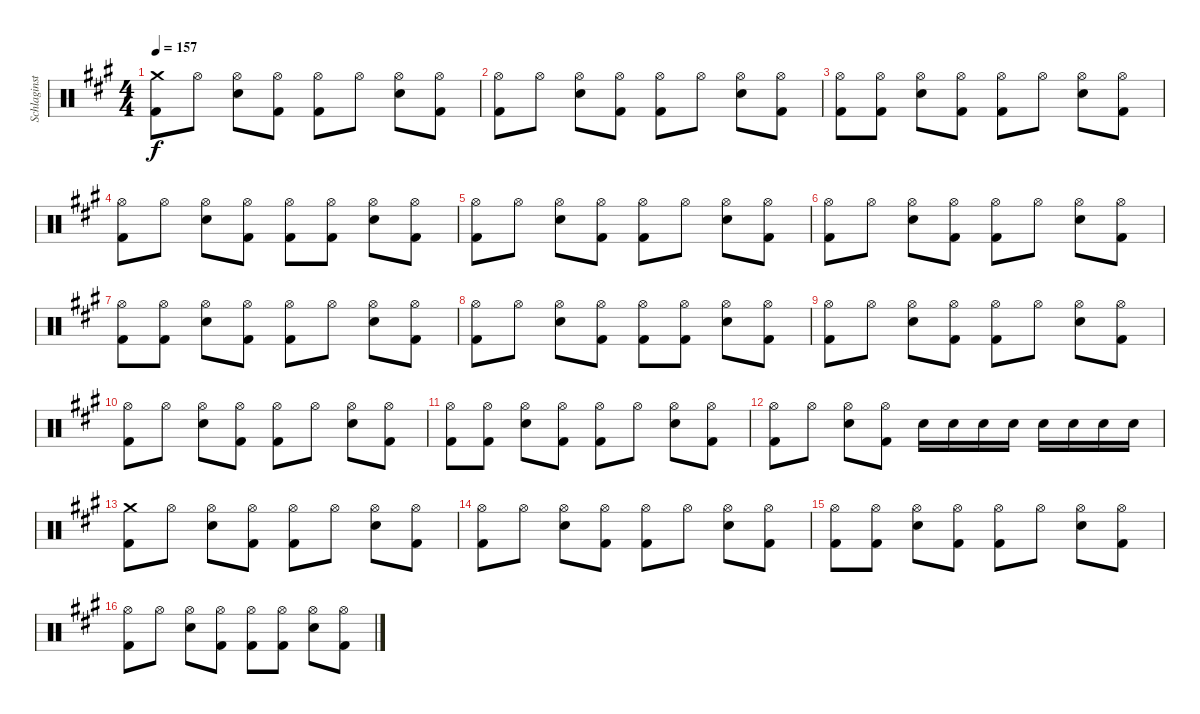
\track ("Schlaginstrumente - Auswahl" "Schlaginst") {instrument percussion}
\staff {score}
\articulation defaults
\ts (4 4)
\tempo 157
\clef neutral
\ks f#minor
("Crash medium (hit)" "Kick (hit) 2").8{dy f} "Hi-Hat (open)".8 ("Hi-Hat (open)" "Electric Snare (hit)").8 ("Hi-Hat (open)" "Kick (hit) 2").8 ("Hi-Hat (open)" "Kick (hit) 2").8 "Hi-Hat (open)".8 ("Hi-Hat (open)" "Electric Snare (hit)").8 ("Hi-Hat (open)" "Kick (hit) 2").8 |
("Hi-Hat (open)" "Kick (hit) 2").8 "Hi-Hat (open)".8 ("Hi-Hat (open)" "Electric Snare (hit)").8 ("Hi-Hat (open)" "Kick (hit) 2").8 ("Hi-Hat (open)" "Kick (hit) 2").8 "Hi-Hat (open)".8 ("Hi-Hat (open)" "Electric Snare (hit)").8 ("Hi-Hat (open)" "Kick (hit) 2").8 |
("Hi-Hat (open)" "Kick (hit) 2").8 ("Hi-Hat (open)" "Kick (hit) 2").8 ("Hi-Hat (open)" "Electric Snare (hit)").8 ("Hi-Hat (open)" "Kick (hit) 2").8 ("Hi-Hat (open)" "Kick (hit) 2").8 "Hi-Hat (open)".8 ("Hi-Hat (open)" "Electric Snare (hit)").8 ("Hi-Hat (open)" "Kick (hit) 2").8 |
("Hi-Hat (open)" "Kick (hit) 2").8 "Hi-Hat (open)".8 ("Hi-Hat (open)" "Electric Snare (hit)").8 ("Hi-Hat (open)" "Kick (hit) 2").8 ("Hi-Hat (open)" "Kick (hit) 2").8 ("Hi-Hat (open)" "Kick (hit) 2").8 ("Hi-Hat (open)" "Electric Snare (hit)").8 ("Hi-Hat (open)" "Kick (hit) 2").8 |
("Hi-Hat (open)" "Kick (hit) 2").8 "Hi-Hat (open)".8 ("Hi-Hat (open)" "Electric Snare (hit)").8 ("Hi-Hat (open)" "Kick (hit) 2").8 ("Hi-Hat (open)" "Kick (hit) 2").8 "Hi-Hat (open)".8 ("Hi-Hat (open)" "Electric Snare (hit)").8 ("Hi-Hat (open)" "Kick (hit) 2").8 |
("Hi-Hat (open)" "Kick (hit) 2").8 "Hi-Hat (open)".8 ("Hi-Hat (open)" "Electric Snare (hit)").8 ("Hi-Hat (open)" "Kick (hit) 2").8 ("Hi-Hat (open)" "Kick (hit) 2").8 "Hi-Hat (open)".8 ("Hi-Hat (open)" "Electric Snare (hit)").8 ("Hi-Hat (open)" "Kick (hit) 2").8 |
("Hi-Hat (open)" "Kick (hit) 2").8 ("Hi-Hat (open)" "Kick (hit) 2").8 ("Hi-Hat (open)" "Electric Snare (hit)").8 ("Hi-Hat (open)" "Kick (hit) 2").8 ("Hi-Hat (open)" "Kick (hit) 2").8 "Hi-Hat (open)".8 ("Hi-Hat (open)" "Electric Snare (hit)").8 ("Hi-Hat (open)" "Kick (hit) 2").8 |
("Hi-Hat (open)" "Kick (hit) 2").8 "Hi-Hat (open)".8 ("Hi-Hat (open)" "Electric Snare (hit)").8 ("Hi-Hat (open)" "Kick (hit) 2").8 ("Hi-Hat (open)" "Kick (hit) 2").8 ("Hi-Hat (open)" "Kick (hit) 2").8 ("Hi-Hat (open)" "Electric Snare (hit)").8 ("Hi-Hat (open)" "Kick (hit) 2").8 |
("Hi-Hat (open)" "Kick (hit) 2").8 "Hi-Hat (open)".8 ("Hi-Hat (open)" "Electric Snare (hit)").8 ("Hi-Hat (open)" "Kick (hit) 2").8 ("Hi-Hat (open)" "Kick (hit) 2").8 "Hi-Hat (open)".8 ("Hi-Hat (open)" "Electric Snare (hit)").8 ("Hi-Hat (open)" "Kick (hit) 2").8 |
("Hi-Hat (open)" "Kick (hit) 2").8 "Hi-Hat (open)".8 ("Hi-Hat (open)" "Electric Snare (hit)").8 ("Hi-Hat (open)" "Kick (hit) 2").8 ("Hi-Hat (open)" "Kick (hit) 2").8 "Hi-Hat (open)".8 ("Hi-Hat (open)" "Electric Snare (hit)").8 ("Hi-Hat (open)" "Kick (hit) 2").8 |
("Hi-Hat (open)" "Kick (hit) 2").8 ("Hi-Hat (open)" "Kick (hit) 2").8 ("Hi-Hat (open)" "Electric Snare (hit)").8 ("Hi-Hat (open)" "Kick (hit) 2").8 ("Hi-Hat (open)" "Kick (hit) 2").8 "Hi-Hat (open)".8 ("Hi-Hat (open)" "Electric Snare (hit)").8 ("Hi-Hat (open)" "Kick (hit) 2").8 |
("Hi-Hat (open)" "Kick (hit) 2").8 "Hi-Hat (open)".8 ("Hi-Hat (open)" "Electric Snare (hit)").8 ("Hi-Hat (open)" "Kick (hit) 2").8 "Electric Snare (hit)".16 "Electric Snare (hit)".16 "Electric Snare (hit)".16 "Electric Snare (hit)".16 "Electric Snare (hit)".16 "Electric Snare (hit)".16 "Electric Snare (hit)".16 "Electric Snare (hit)".16 |
("Crash medium (hit)" "Kick (hit) 2").8 "Hi-Hat (open)".8 ("Hi-Hat (open)" "Electric Snare (hit)").8 ("Hi-Hat (open)" "Kick (hit) 2").8 ("Hi-Hat (open)" "Kick (hit) 2").8 "Hi-Hat (open)".8 ("Hi-Hat (open)" "Electric Snare (hit)").8 ("Hi-Hat (open)" "Kick (hit) 2").8 |
("Hi-Hat (open)" "Kick (hit) 2").8 "Hi-Hat (open)".8 ("Hi-Hat (open)" "Electric Snare (hit)").8 ("Hi-Hat (open)" "Kick (hit) 2").8 ("Hi-Hat (open)" "Kick (hit) 2").8 "Hi-Hat (open)".8 ("Hi-Hat (open)" "Electric Snare (hit)").8 ("Hi-Hat (open)" "Kick (hit) 2").8 |
("Hi-Hat (open)" "Kick (hit) 2").8 ("Hi-Hat (open)" "Kick (hit) 2").8 ("Hi-Hat (open)" "Electric Snare (hit)").8 ("Hi-Hat (open)" "Kick (hit) 2").8 ("Hi-Hat (open)" "Kick (hit) 2").8 "Hi-Hat (open)".8 ("Hi-Hat (open)" "Electric Snare (hit)").8 ("Hi-Hat (open)" "Kick (hit) 2").8 |
("Hi-Hat (open)" "Kick (hit) 2").8 "Hi-Hat (open)".8 ("Hi-Hat (open)" "Electric Snare (hit)").8 ("Hi-Hat (open)" "Kick (hit) 2").8 ("Hi-Hat (open)" "Kick (hit) 2").8 ("Hi-Hat (open)" "Kick (hit) 2").8 ("Hi-Hat (open)" "Electric Snare (hit)").8 ("Hi-Hat (open)" "Kick (hit) 2").8
